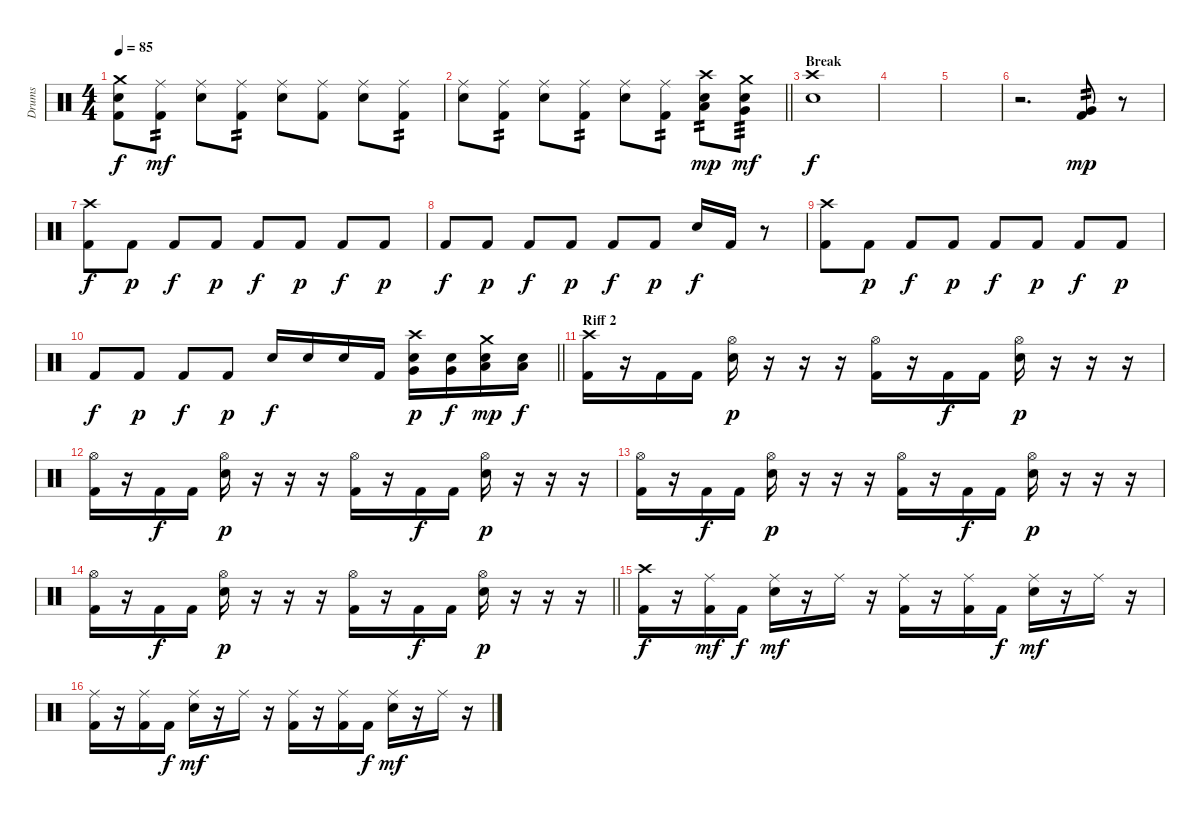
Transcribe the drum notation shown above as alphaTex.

\track ("Drums" "Drums") {instrument percussion}
\staff {score}
\articulation defaults
\ts (4 4)
\tempo 85
\clef neutral
\ks c
("Crash medium (hit)" "Electric Snare (hit)" "Kick (hit) 2").8{dy f} ("Ride (middle)" "Kick (hit) 2").8{tp 2 dy mf} ("Ride (middle)" "Electric Snare (hit)").8 ("Ride (middle)" "Kick (hit) 2").8{tp 2} ("Ride (middle)" "Electric Snare (hit)").8 ("Ride (middle)" "Kick (hit) 2").8 ("Ride (middle)" "Electric Snare (hit)").8 ("Ride (middle)" "Kick (hit) 2").8{tp 2} |
\barLineRight lightlight
("Ride (middle)" "Electric Snare (hit)").8 ("Ride (middle)" "Kick (hit) 2").8{tp 2} ("Ride (middle)" "Electric Snare (hit)").8 ("Ride (middle)" "Kick (hit) 2").8{tp 2} ("Ride (middle)" "Electric Snare (hit)").8 ("Ride (middle)" "Kick (hit) 2").8{tp 2} ("Crash high (hit)" "Low Floor Tom (hit)" "Electric Snare (hit)").8{tp 2 dy mp} ("Crash medium (hit)" "Very Low Tom (hit)" "Electric Snare (hit)").8{tp 3 dy mf} |
\section ("" "Break")
("Crash high (hit)" "Electric Snare (hit)").1{dy f} |
|
|
r.2{d} ("Very Low Tom (hit)" "Kick (hit) 2").8{tp 2 dy mp} r.8 |
("Crash high (hit)" "Kick (hit) 2").8{dy f} "Kick (hit) 2".8{dy p} "Kick (hit) 2".8{dy f} "Kick (hit) 2".8{dy p} "Kick (hit) 2".8{dy f} "Kick (hit) 2".8{dy p} "Kick (hit) 2".8{dy f} "Kick (hit) 2".8{dy p} |
"Kick (hit) 2".8{dy f} "Kick (hit) 2".8{dy p} "Kick (hit) 2".8{dy f} "Kick (hit) 2".8{dy p} "Kick (hit) 2".8{dy f} "Kick (hit) 2".8{dy p} "Electric Snare (hit)".16{dy f} "Kick (hit) 2".16 r.8 |
("Crash high (hit)" "Kick (hit) 2").8 "Kick (hit) 2".8{dy p} "Kick (hit) 2".8{dy f} "Kick (hit) 2".8{dy p} "Kick (hit) 2".8{dy f} "Kick (hit) 2".8{dy p} "Kick (hit) 2".8{dy f} "Kick (hit) 2".8{dy p} |
\barLineRight lightlight "Kick (hit) 2".8{dy f} "Kick (hit) 2".8{dy p} "Kick (hit) 2".8{dy f} "Kick (hit) 2".8{dy p} "Electric Snare (hit)".16{dy f} "Electric Snare (hit)".16 "Electric Snare (hit)".16 "Kick (hit) 2".16
("Crash high (hit)" "Very Low Tom (hit)" "Electric Snare (hit)").16{dy p} ("Very Low Tom (hit)" "Electric Snare (hit)").16{dy f} ("Crash medium (hit)" "Low Floor Tom (hit)" "Electric Snare (hit)").16{dy mp} ("Low Floor Tom (hit)" "Electric Snare (hit)").16{dy f} |
\section ("" "Riff 2")
("Crash high (hit)" "Kick (hit) 2").16 r.16 "Kick (hit) 2".16 "Kick (hit) 2".16 ("Hi-Hat (open)" "Electric Snare (hit)").16{dy p} r.16 r.16 r.16 ("Hi-Hat (open)" "Kick (hit) 2").16 r.16 "Kick (hit) 2".16{dy f} "Kick (hit) 2".16 ("Hi-Hat (open)" "Electric Snare (hit)").16{dy p} r.16 r.16 r.16 |
("Hi-Hat (open)" "Kick (hit) 2").16 r.16 "Kick (hit) 2".16{dy f} "Kick (hit) 2".16 ("Hi-Hat (open)" "Electric Snare (hit)").16{dy p} r.16 r.16 r.16 ("Hi-Hat (open)" "Kick (hit) 2").16 r.16 "Kick (hit) 2".16{dy f} "Kick (hit) 2".16 ("Hi-Hat (open)" "Electric Snare (hit)").16{dy p} r.16 r.16 r.16 |
("Hi-Hat (open)" "Kick (hit) 2").16 r.16 "Kick (hit) 2".16{dy f} "Kick (hit) 2".16 ("Hi-Hat (open)" "Electric Snare (hit)").16{dy p} r.16 r.16 r.16 ("Hi-Hat (open)" "Kick (hit) 2").16 r.16 "Kick (hit) 2".16{dy f} "Kick (hit) 2".16 ("Hi-Hat (open)" "Electric Snare (hit)").16{dy p} r.16 r.16 r.16 |
\barLineRight lightlight
("Hi-Hat (open)" "Kick (hit) 2").16 r.16 "Kick (hit) 2".16{dy f} "Kick (hit) 2".16 ("Hi-Hat (open)" "Electric Snare (hit)").16{dy p} r.16 r.16 r.16 ("Hi-Hat (open)" "Kick (hit) 2").16 r.16 "Kick (hit) 2".16{dy f} "Kick (hit) 2".16 ("Hi-Hat (open)" "Electric Snare (hit)").16{dy p} r.16 r.16 r.16 |
("Crash high (hit)" "Kick (hit) 2").16{dy f} r.16 ("Ride (middle)" "Kick (hit) 2").16{dy mf} "Kick (hit) 2".16{dy f} ("Ride (middle)" "Electric Snare (hit)").16{dy mf} r.16 "Ride (middle)".16 r.16 ("Ride (middle)" "Kick (hit) 2").16 r.16 ("Ride (middle)" "Kick (hit) 2").16 "Kick (hit) 2".16{dy f} ("Ride (middle)" "Electric Snare (hit)").16{dy mf} r.16 "Ride (middle)".16 r.16 |
("Ride (middle)" "Kick (hit) 2").16 r.16 ("Ride (middle)" "Kick (hit) 2").16 "Kick (hit) 2".16{dy f} ("Ride (middle)" "Electric Snare (hit)").16{dy mf} r.16 "Ride (middle)".16 r.16 ("Ride (middle)" "Kick (hit) 2").16 r.16 ("Ride (middle)" "Kick (hit) 2").16 "Kick (hit) 2".16{dy f} ("Ride (middle)" "Electric Snare (hit)").16{dy mf} r.16 "Ride (middle)".16 r.16
